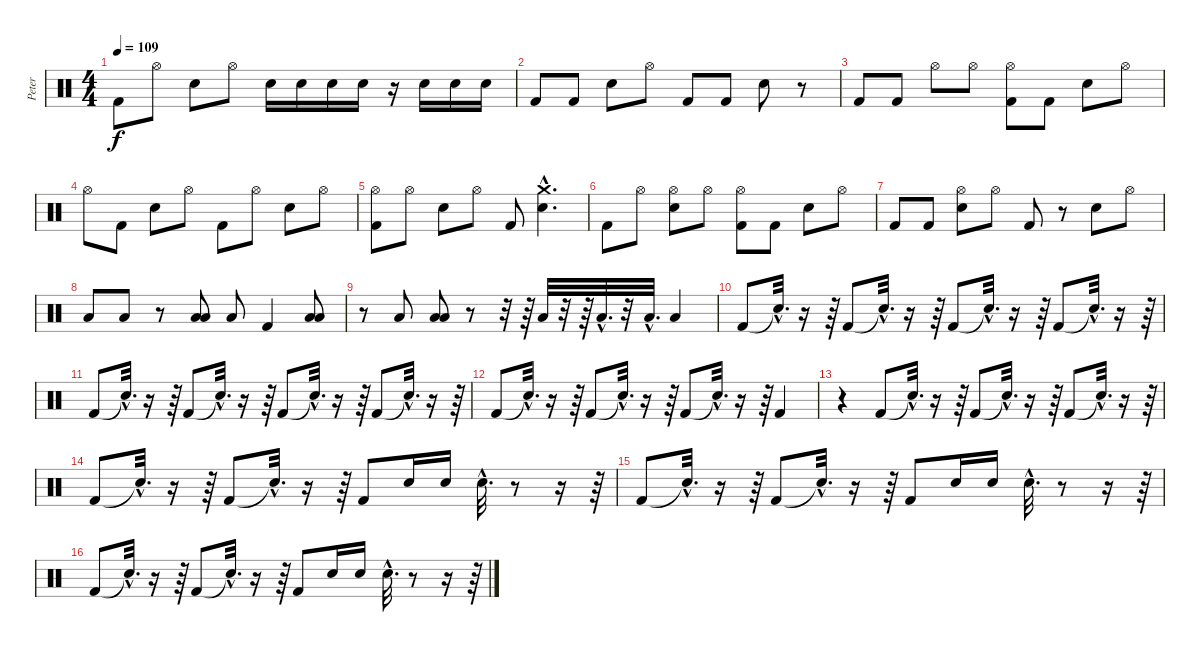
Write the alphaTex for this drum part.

\track ("Peter" "Peter") {instrument percussion}
\staff {score}
\articulation defaults
\ts (4 4)
\tempo 109
\clef neutral
\ks c "Kick (hit) 2".8{dy f} "Hi-Hat (open)".8 "Electric Snare (hit)".8 "Hi-Hat (open)".8 "Electric Snare (hit)".16 "Electric Snare (hit)".16 "Electric Snare (hit)".16 "Electric Snare (hit)".16
r.16 "Electric Snare (hit)".16 "Electric Snare (hit)".16 "Electric Snare (hit)".16 |
"Kick (hit) 2".8 "Kick (hit) 2".8 "Electric Snare (hit)".8 "Hi-Hat (open)".8 "Kick (hit) 2".8 "Kick (hit) 2".8 "Electric Snare (hit)".8 r.8 |
"Kick (hit) 2".8 "Kick (hit) 2".8 "Hi-Hat (open)".8 "Hi-Hat (open)".8 ("Kick (hit) 2" "Hi-Hat (open)").8 "Kick (hit) 2".8 "Electric Snare (hit)".8 "Hi-Hat (open)".8 |
"Hi-Hat (open)".8 "Kick (hit) 2".8 "Electric Snare (hit)".8 "Hi-Hat (open)".8 "Kick (hit) 2".8 "Hi-Hat (open)".8 "Electric Snare (hit)".8 "Hi-Hat (open)".8 |
("Kick (hit) 2" "Hi-Hat (open)").8 "Hi-Hat (open)".8 "Electric Snare (hit)".8 "Hi-Hat (open)".8 "Kick (hit) 2".8 ("Crash medium (hit)"{hac} "Electric Snare (hit)"{hac}).4{d} |
"Kick (hit) 2".8 "Hi-Hat (open)".8 ("Hi-Hat (open)" "Electric Snare (hit)").8 "Hi-Hat (open)".8 ("Kick (hit) 2" "Hi-Hat (open)").8 "Kick (hit) 2".8 "Electric Snare (hit)".8 "Hi-Hat (open)".8 |
"Kick (hit) 2".8 "Kick (hit) 2".8 ("Electric Snare (hit)" "Hi-Hat (open)").8 "Hi-Hat (open)".8 "Kick (hit) 2".8 r.8 "Electric Snare (hit)".8 "Hi-Hat (open)".8 |
"Low Tom (hit)".8 "Low Tom (hit)".8 r.8 ("Low Tom (hit)" "Low Floor Tom (hit)").8 "Low Tom (hit)".8 "Kick (hit) 2".4 ("Low Tom (hit)" "Low Floor Tom (hit)").8 |
r.8 "Low Floor Tom (hit)".8 ("Low Floor Tom (hit)" "Low Tom (hit)").8 r.8 r.32 r.64 "Low Tom (hit)".32 r.32 r.64 "Low Tom (hit)"{hac}.32{d} r.32 "Low Tom (hit)"{hac}.32{d} "Low Tom (hit)".4 |
"Kick (hit) 2".8 "Snare (hit)"{hac t}.32{d} r.16 r.64 "Kick (hit) 2".8 "Snare (hit)"{hac t}.32{d} r.16 r.64 "Kick (hit) 2".8 "Snare (hit)"{hac t}.32{d} r.16 r.64 "Kick (hit) 2".8 "Snare (hit)"{hac t}.32{d} r.16 r.64 |
"Kick (hit) 2".8 "Snare (hit)"{hac t}.32{d} r.16 r.64 "Kick (hit) 2".8 "Snare (hit)"{hac t}.32{d} r.16 r.64 "Kick (hit) 2".8 "Snare (hit)"{hac t}.32{d} r.16 r.64 "Kick (hit) 2".8 "Snare (hit)"{hac t}.32{d} r.16 r.64 |
"Kick (hit) 2".8 "Snare (hit)"{hac t}.32{d} r.16 r.64 "Kick (hit) 2".8 "Snare (hit)"{hac t}.32{d} r.16 r.64 "Kick (hit) 2".8 "Snare (hit)"{hac t}.32{d} r.16 r.64 "Kick (hit) 2".4 |
r.4 "Kick (hit) 2".8 "Snare (hit)"{hac t}.32{d} r.16 r.64 "Kick (hit) 2".8 "Snare (hit)"{hac t}.32{d} r.16 r.64 "Kick (hit) 2".8 "Snare (hit)"{hac t}.32{d} r.16 r.64 |
"Kick (hit) 2".8 "Snare (hit)"{hac t}.32{d} r.16 r.64 "Kick (hit) 2".8 "Snare (hit)"{hac t}.32{d} r.16 r.64 "Kick (hit) 2".8 "Electric Snare (hit)".16 "Electric Snare (hit)".16 "Electric Snare (hit)"{hac}.32{d} r.8 r.16 r.64 |
"Kick (hit) 2".8 "Snare (hit)"{hac t}.32{d} r.16 r.64 "Kick (hit) 2".8 "Snare (hit)"{hac t}.32{d} r.16 r.64 "Kick (hit) 2".8 "Electric Snare (hit)".16 "Electric Snare (hit)".16 "Electric Snare (hit)"{hac}.32{d} r.8 r.16 r.64 |
"Kick (hit) 2".8 "Snare (hit)"{hac t}.32{d} r.16 r.64 "Kick (hit) 2".8 "Snare (hit)"{hac t}.32{d} r.16 r.64 "Kick (hit) 2".8 "Electric Snare (hit)".16 "Electric Snare (hit)".16 "Electric Snare (hit)"{hac}.32{d} r.8 r.16 r.64
